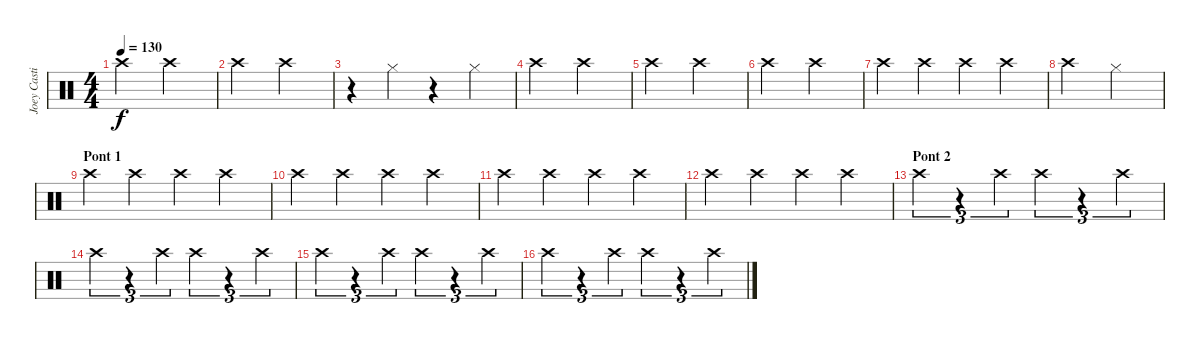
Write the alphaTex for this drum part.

\track ("Joey Castillo" "Joey Casti") {instrument percussion}
\staff {score}
\articulation defaults
\ts (4 4)
\tempo 130
\clef neutral
\ks c "Crash high (hit)".2{dy f} "Crash high (hit)".2
|
"Crash high (hit)".2 "Crash high (hit)".2 |
r.4 "Hi-Hat (closed)".4 r.4 "Hi-Hat (closed)".4 |
"Crash high (hit)".2 "Crash high (hit)".2 |
"Crash high (hit)".2 "Crash high (hit)".2 |
"Crash high (hit)".2 "Crash high (hit)".2 |
"Crash high (hit)".4 "Crash high (hit)".4 "Crash high (hit)".4 "Crash high (hit)".4 |
"Crash high (hit)".2 "Hi-Hat (closed)".2 |
\section ("" "Pont 1")
"Crash high (hit)".4 "Crash high (hit)".4 "Crash high (hit)".4 "Crash high (hit)".4 |
"Crash high (hit)".4 "Crash high (hit)".4 "Crash high (hit)".4 "Crash high (hit)".4 |
"Crash high (hit)".4 "Crash high (hit)".4 "Crash high (hit)".4 "Crash high (hit)".4 |
"Crash high (hit)".4 "Crash high (hit)".4 "Crash high (hit)".4 "Crash high (hit)".4 |
\section ("" "Pont 2")
"Crash high (hit)".4{tu (3 2)} r.4{tu (3 2)} "Crash high (hit)".4{tu (3 2)} "Crash high (hit)".4{tu (3 2)} r.4{tu (3 2)} "Crash high (hit)".4{tu (3 2)} |
"Crash high (hit)".4{tu (3 2)} r.4{tu (3 2)} "Crash high (hit)".4{tu (3 2)} "Crash high (hit)".4{tu (3 2)} r.4{tu (3 2)} "Crash high (hit)".4{tu (3 2)} |
"Crash high (hit)".4{tu (3 2)} r.4{tu (3 2)} "Crash high (hit)".4{tu (3 2)} "Crash high (hit)".4{tu (3 2)} r.4{tu (3 2)} "Crash high (hit)".4{tu (3 2)} |
"Crash high (hit)".4{tu (3 2)} r.4{tu (3 2)} "Crash high (hit)".4{tu (3 2)} "Crash high (hit)".4{tu (3 2)} r.4{tu (3 2)} "Crash high (hit)".4{tu (3 2)}
